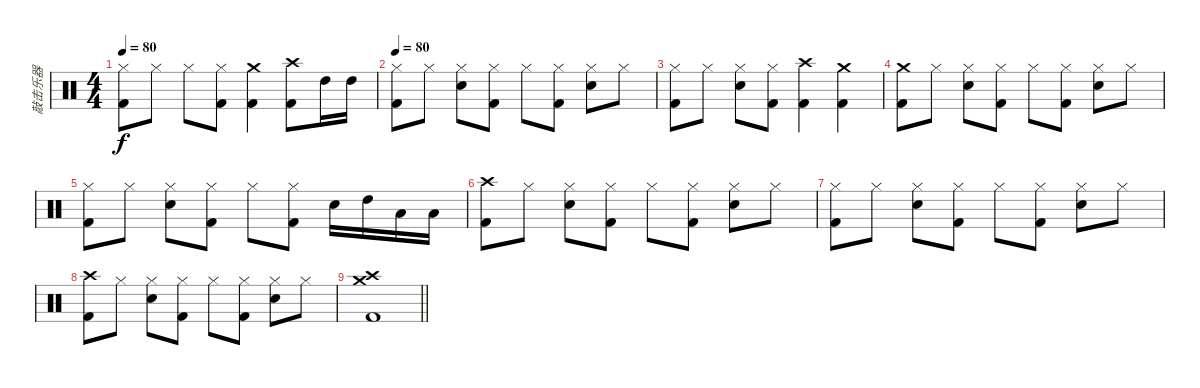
\track ("敲击乐器" "敲击乐器") {instrument percussion}
\staff {score}
\articulation defaults
\ts (4 4)
\tempo 80
\clef neutral
\ks c
("Hi-Hat (closed)" "Kick (hit) 2").8{dy f} "Hi-Hat (closed)".8 "Hi-Hat (closed)".8 ("Hi-Hat (closed)" "Kick (hit) 2").8 ("Crash medium (hit)" "Kick (hit) 2").4 ("Crash high (hit)" "Kick (hit) 2").8 "High Tom (hit)".16 "High Tom (hit)".16 |
\tempo 80
("Hi-Hat (closed)" "Kick (hit) 2").8 "Hi-Hat (closed)".8 ("Hi-Hat (closed)" "Snare (hit) 2").8 ("Hi-Hat (closed)" "Kick (hit) 2").8 "Hi-Hat (closed)".8 ("Hi-Hat (closed)" "Kick (hit) 2").8 ("Hi-Hat (closed)" "Snare (hit) 2").8 "Hi-Hat (closed)".8 |
("Hi-Hat (closed)" "Kick (hit) 2").8 "Hi-Hat (closed)".8 ("Hi-Hat (closed)" "Snare (hit) 2").8 ("Hi-Hat (closed)" "Kick (hit) 2").8 ("Crash high (hit)" "Kick (hit) 2").4 ("Crash medium (hit)" "Kick (hit) 2").4 |
("Crash medium (hit)" "Kick (hit) 2").8 "Hi-Hat (closed)".8 ("Hi-Hat (closed)" "Snare (hit) 2").8 ("Hi-Hat (closed)" "Kick (hit) 2").8 "Hi-Hat (closed)".8 ("Hi-Hat (closed)" "Kick (hit) 2").8 ("Hi-Hat (closed)" "Snare (hit) 2").8 "Hi-Hat (closed)".8 |
("Hi-Hat (closed)" "Kick (hit) 2").8 "Hi-Hat (closed)".8 ("Hi-Hat (closed)" "Snare (hit) 2").8 ("Hi-Hat (closed)" "Kick (hit) 2").8 "Hi-Hat (closed)".8 ("Hi-Hat (closed)" "Kick (hit) 2").8 "Snare (hit) 2".16 "High Tom (hit)".16 "Low Tom (hit)".16 "Low Tom (hit)".16 |
("Crash high (hit)" "Kick (hit) 2").8 "Hi-Hat (closed)".8 ("Hi-Hat (closed)" "Snare (hit) 2").8 ("Hi-Hat (closed)" "Kick (hit) 2").8 "Hi-Hat (closed)".8 ("Hi-Hat (closed)" "Kick (hit) 2").8 ("Hi-Hat (closed)" "Snare (hit) 2").8 "Hi-Hat (closed)".8 |
("Hi-Hat (closed)" "Kick (hit) 2").8 "Hi-Hat (closed)".8 ("Hi-Hat (closed)" "Snare (hit) 2").8 ("Hi-Hat (closed)" "Kick (hit) 2").8 "Hi-Hat (closed)".8 ("Hi-Hat (closed)" "Kick (hit) 2").8 ("Hi-Hat (closed)" "Snare (hit) 2").8 "Hi-Hat (closed)".8 |
("Crash high (hit)" "Kick (hit) 2").8 "Hi-Hat (closed)".8 ("Hi-Hat (closed)" "Snare (hit) 2").8 ("Hi-Hat (closed)" "Kick (hit) 2").8 "Hi-Hat (closed)".8 ("Hi-Hat (closed)" "Kick (hit) 2").8 ("Hi-Hat (closed)" "Snare (hit) 2").8 "Hi-Hat (closed)".8 |
\barLineRight lightlight
("Crash high (hit)" "Crash medium (hit)" "Kick (hit) 2").1
